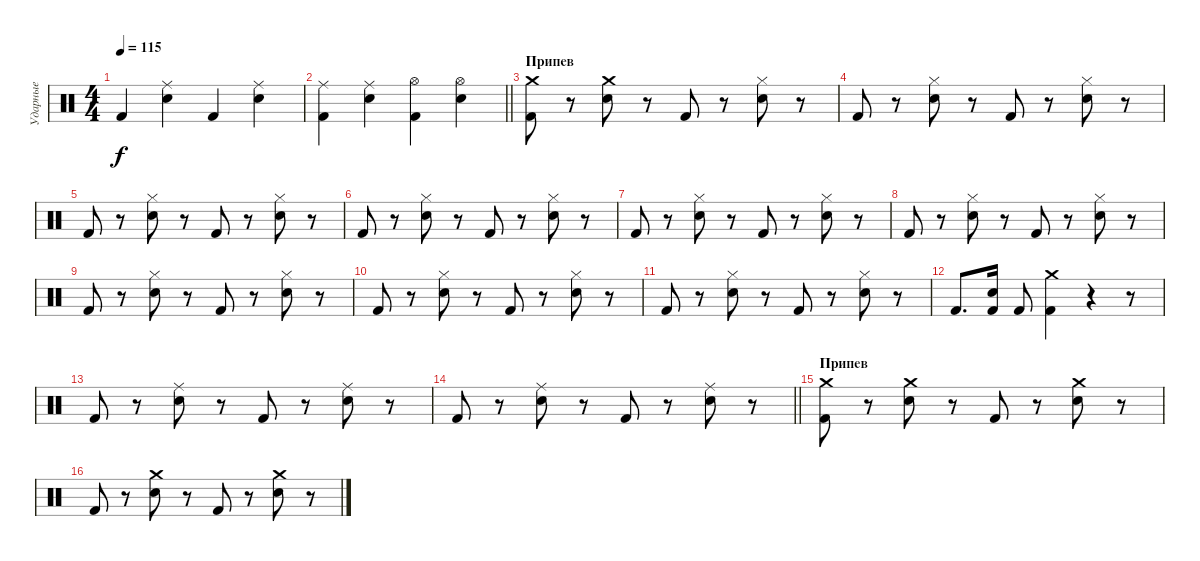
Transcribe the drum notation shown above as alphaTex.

\track ("Ударные" "Ударные") {instrument percussion}
\staff {score}
\articulation defaults
\ts (4 4)
\tempo 115
\clef neutral
\ks c "Kick (hit) 2".4{dy f}
("Snare (hit) 2" "Ride (middle)").4 "Kick (hit) 2".4 ("Snare (hit) 2" "Ride (middle)").4 |
\barLineRight lightlight
("Kick (hit) 2" "Ride (middle)").4 ("Snare (hit) 2" "Ride (middle)").4 ("Kick (hit) 2" "Hi-Hat (open)").4 ("Snare (hit) 2" "Hi-Hat (open)").4 |
\section ("" "Припев")
("Kick (hit) 2" "Crash medium (hit)").8 r.8 ("Snare (hit) 2" "Crash medium (hit)").8 r.8 "Kick (hit) 2".8 r.8 ("Snare (hit) 2" "Hi-Hat (closed)").8 r.8 |
"Kick (hit) 2".8 r.8 ("Snare (hit) 2" "Hi-Hat (closed)").8 r.8 "Kick (hit) 2".8 r.8 ("Snare (hit) 2" "Hi-Hat (closed)").8 r.8 |
"Kick (hit) 2".8 r.8 ("Snare (hit) 2" "Hi-Hat (closed)").8 r.8 "Kick (hit) 2".8 r.8 ("Snare (hit) 2" "Hi-Hat (closed)").8 r.8 |
"Kick (hit) 2".8 r.8 ("Snare (hit) 2" "Hi-Hat (closed)").8 r.8 "Kick (hit) 2".8 r.8 ("Snare (hit) 2" "Hi-Hat (closed)").8 r.8 |
"Kick (hit) 2".8 r.8 ("Snare (hit) 2" "Hi-Hat (closed)").8 r.8 "Kick (hit) 2".8 r.8 ("Snare (hit) 2" "Hi-Hat (closed)").8 r.8 |
"Kick (hit) 2".8 r.8 ("Snare (hit) 2" "Hi-Hat (closed)").8 r.8 "Kick (hit) 2".8 r.8 ("Snare (hit) 2" "Hi-Hat (closed)").8 r.8 |
"Kick (hit) 2".8 r.8 ("Snare (hit) 2" "Hi-Hat (closed)").8 r.8 "Kick (hit) 2".8 r.8 ("Snare (hit) 2" "Hi-Hat (closed)").8 r.8 |
"Kick (hit) 2".8 r.8 ("Snare (hit) 2" "Hi-Hat (closed)").8 r.8 "Kick (hit) 2".8 r.8 ("Snare (hit) 2" "Hi-Hat (closed)").8 r.8 |
"Kick (hit) 2".8 r.8 ("Snare (hit) 2" "Hi-Hat (closed)").8 r.8 "Kick (hit) 2".8 r.8 ("Snare (hit) 2" "Hi-Hat (closed)").8 r.8 |
"Kick (hit) 2".8{d} ("Kick (hit) 2" "Snare (hit) 2").16 "Kick (hit) 2".8 ("Kick (hit) 2" "Crash medium (hit)").4 r.4 r.8 |
"Kick (hit) 2".8 r.8 ("Snare (hit) 2" "Ride (middle)").8 r.8 "Kick (hit) 2".8 r.8 ("Snare (hit) 2" "Ride (middle)").8 r.8 |
\barLineRight lightlight "Kick (hit) 2".8
r.8 ("Snare (hit) 2" "Ride (middle)").8 r.8 "Kick (hit) 2".8 r.8 ("Snare (hit) 2" "Ride (middle)").8 r.8 |
\section ("" "Припев")
("Kick (hit) 2" "Crash medium (hit)").8 r.8 ("Snare (hit) 2" "Crash medium (hit)").8 r.8 "Kick (hit) 2".8 r.8 ("Snare (hit) 2" "Crash medium (hit)").8 r.8 |
"Kick (hit) 2".8 r.8 ("Snare (hit) 2" "Crash medium (hit)").8 r.8 "Kick (hit) 2".8 r.8 ("Snare (hit) 2" "Crash medium (hit)").8 r.8
